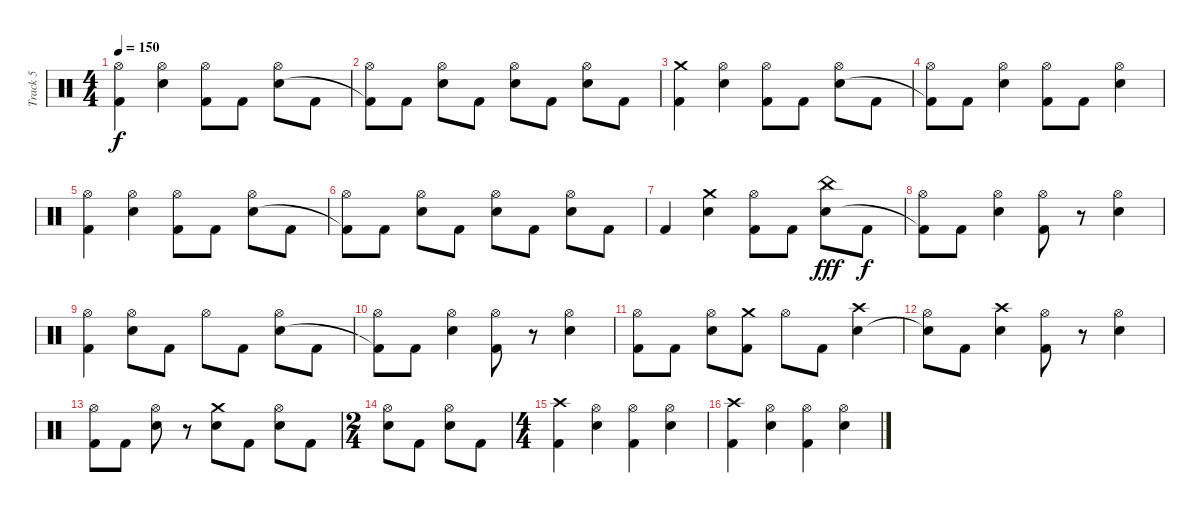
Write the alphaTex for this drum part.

\track ("Track 5" "Track 5") {instrument percussion}
\staff {score}
\articulation defaults
\ts (4 4)
\tempo 150
\clef neutral
\ks c
("Hi-Hat (open)" "Kick (hit) 2").4{dy f} ("Hi-Hat (open)" "Electric Snare (hit)").4 ("Hi-Hat (open)" "Kick (hit) 2").8 "Kick (hit) 2".8 ("Hi-Hat (open)" "Electric Snare (hit)").8 "Kick (hit) 2".8 |
("Hi-Hat (open)" "Kick (hit) 2"{t}).8 "Kick (hit) 2".8 ("Hi-Hat (open)" "Electric Snare (hit)").8 "Kick (hit) 2".8 ("Hi-Hat (open)" "Electric Snare (hit)").8 "Kick (hit) 2".8 ("Hi-Hat (open)" "Electric Snare (hit)").8 "Kick (hit) 2".8 |
("Crash medium (hit)" "Kick (hit) 2").4 ("Hi-Hat (open)" "Electric Snare (hit)").4 ("Hi-Hat (open)" "Kick (hit) 2").8 "Kick (hit) 2".8 ("Hi-Hat (open)" "Electric Snare (hit)").8 "Kick (hit) 2".8 |
("Hi-Hat (open)" "Kick (hit) 2"{t}).8 "Kick (hit) 2".8 ("Hi-Hat (open)" "Electric Snare (hit)").4 ("Hi-Hat (open)" "Kick (hit) 2").8 "Kick (hit) 2".8 ("Hi-Hat (open)" "Electric Snare (hit)").4 |
("Hi-Hat (open)" "Kick (hit) 2").4 ("Hi-Hat (open)" "Electric Snare (hit)").4 ("Hi-Hat (open)" "Kick (hit) 2").8 "Kick (hit) 2".8 ("Hi-Hat (open)" "Electric Snare (hit)").8 "Kick (hit) 2".8 |
("Hi-Hat (open)" "Kick (hit) 2"{t}).8 "Kick (hit) 2".8 ("Hi-Hat (open)" "Electric Snare (hit)").8 "Kick (hit) 2".8 ("Hi-Hat (open)" "Electric Snare (hit)").8 "Kick (hit) 2".8 ("Hi-Hat (open)" "Electric Snare (hit)").8 "Kick (hit) 2".8 |
"Kick (hit) 2".4 ("Crash medium (hit)" "Electric Snare (hit)").4 ("Hi-Hat (open)" "Kick (hit) 2").8 "Kick (hit) 2".8 ("China (hit)" "Electric Snare (hit)").8{dy fff} "Kick (hit) 2".8{dy f} |
("Hi-Hat (open)" "Kick (hit) 2"{t}).8 "Kick (hit) 2".8 ("Hi-Hat (open)" "Electric Snare (hit)").4 ("Hi-Hat (open)" "Kick (hit) 2").8 r.8 ("Hi-Hat (open)" "Electric Snare (hit)").4 |
("Hi-Hat (open)" "Kick (hit) 2").4 ("Hi-Hat (open)" "Electric Snare (hit)").8 "Kick (hit) 2".8 "Hi-Hat (open)".8 "Kick (hit) 2".8 ("Hi-Hat (open)" "Electric Snare (hit)").8 "Kick (hit) 2".8 |
("Hi-Hat (open)" "Kick (hit) 2"{t}).8 "Kick (hit) 2".8 ("Hi-Hat (open)" "Electric Snare (hit)").4 ("Hi-Hat (open)" "Kick (hit) 2").8 r.8 ("Hi-Hat (open)" "Electric Snare (hit)").4 |
("Hi-Hat (open)" "Kick (hit) 2").8 "Kick (hit) 2".8 ("Hi-Hat (open)" "Electric Snare (hit)").8 ("Crash medium (hit)" "Kick (hit) 2").8 "Hi-Hat (open)".8 "Kick (hit) 2".8 ("Crash high (hit)" "Electric Snare (hit)").4 |
("Hi-Hat (open)" "Snare (hit)"{t}).8 "Kick (hit) 2".8 ("Crash high (hit)" "Electric Snare (hit)").4 ("Hi-Hat (open)" "Kick (hit) 2").8 r.8 ("Hi-Hat (open)" "Electric Snare (hit)").4 |
("Hi-Hat (open)" "Kick (hit) 2").8 "Kick (hit) 2".8 ("Hi-Hat (open)" "Electric Snare (hit)").8 r.8 ("Crash medium (hit)" "Electric Snare (hit)").8 "Kick (hit) 2".8 ("Hi-Hat (open)" "Electric Snare (hit)").8 "Kick (hit) 2".8 |
\ts (2 4)
("Hi-Hat (open)" "Electric Snare (hit)").8 "Kick (hit) 2".8 ("Hi-Hat (open)" "Electric Snare (hit)").8 "Kick (hit) 2".8 |
\ts (4 4)
("Crash high (hit)" "Kick (hit) 2").4 ("Hi-Hat (open)" "Electric Snare (hit)").4 ("Hi-Hat (open)" "Kick (hit) 2").4 ("Hi-Hat (open)" "Electric Snare (hit)").4 |
("Crash high (hit)" "Kick (hit) 2").4 ("Hi-Hat (open)" "Electric Snare (hit)").4 ("Hi-Hat (open)" "Kick (hit) 2").4 ("Hi-Hat (open)" "Electric Snare (hit)").4
